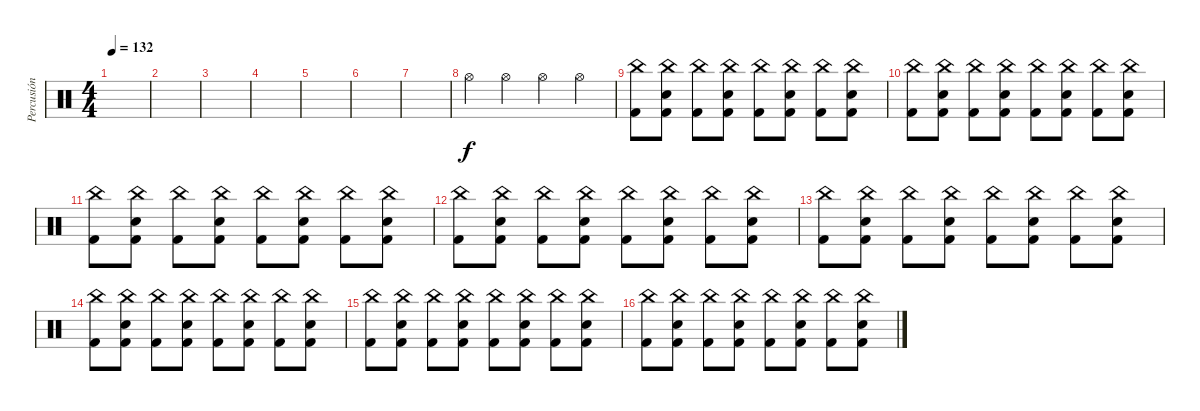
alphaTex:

\track ("Percusión" "Percusión") {instrument percussion}
\staff {score}
\articulation defaults
\ts (4 4)
\tempo 132
\clef neutral
\ks c
|
|
|
|
|
|
|
"Hi-Hat (open)".4 "Hi-Hat (open)".4 "Hi-Hat (open)".4 "Hi-Hat (open)".4 |
("China (hit)" "Kick (hit) 2").8 ("China (hit)" "Electric Snare (hit)" "Kick (hit) 2").8 ("China (hit)" "Kick (hit) 2").8 ("China (hit)" "Electric Snare (hit)" "Kick (hit) 2").8 ("China (hit)" "Kick (hit) 2").8 ("China (hit)" "Electric Snare (hit)" "Kick (hit) 2").8 ("China (hit)" "Kick (hit) 2").8 ("China (hit)" "Electric Snare (hit)" "Kick (hit) 2").8 |
("China (hit)" "Kick (hit) 2").8 ("China (hit)" "Electric Snare (hit)" "Kick (hit) 2").8 ("China (hit)" "Kick (hit) 2").8 ("China (hit)" "Electric Snare (hit)" "Kick (hit) 2").8 ("China (hit)" "Kick (hit) 2").8 ("China (hit)" "Electric Snare (hit)" "Kick (hit) 2").8 ("China (hit)" "Kick (hit) 2").8 ("China (hit)" "Electric Snare (hit)" "Kick (hit) 2").8 |
("China (hit)" "Kick (hit) 2").8 ("China (hit)" "Electric Snare (hit)" "Kick (hit) 2").8 ("China (hit)" "Kick (hit) 2").8 ("China (hit)" "Electric Snare (hit)" "Kick (hit) 2").8 ("China (hit)" "Kick (hit) 2").8 ("China (hit)" "Electric Snare (hit)" "Kick (hit) 2").8 ("China (hit)" "Kick (hit) 2").8 ("China (hit)" "Electric Snare (hit)" "Kick (hit) 2").8 |
("China (hit)" "Kick (hit) 2").8 ("China (hit)" "Electric Snare (hit)" "Kick (hit) 2").8 ("China (hit)" "Kick (hit) 2").8 ("China (hit)" "Electric Snare (hit)" "Kick (hit) 2").8 ("China (hit)" "Kick (hit) 2").8 ("China (hit)" "Electric Snare (hit)" "Kick (hit) 2").8 ("China (hit)" "Kick (hit) 2").8 ("China (hit)" "Electric Snare (hit)" "Kick (hit) 2").8 |
("China (hit)" "Kick (hit) 2").8 ("China (hit)" "Electric Snare (hit)" "Kick (hit) 2").8 ("China (hit)" "Kick (hit) 2").8 ("China (hit)" "Electric Snare (hit)" "Kick (hit) 2").8 ("China (hit)" "Kick (hit) 2").8 ("China (hit)" "Electric Snare (hit)" "Kick (hit) 2").8 ("China (hit)" "Kick (hit) 2").8 ("China (hit)" "Electric Snare (hit)" "Kick (hit) 2").8 |
("China (hit)" "Kick (hit) 2").8 ("China (hit)" "Electric Snare (hit)" "Kick (hit) 2").8 ("China (hit)" "Kick (hit) 2").8 ("China (hit)" "Electric Snare (hit)" "Kick (hit) 2").8 ("China (hit)" "Kick (hit) 2").8 ("China (hit)" "Electric Snare (hit)" "Kick (hit) 2").8 ("China (hit)" "Kick (hit) 2").8 ("China (hit)" "Electric Snare (hit)" "Kick (hit) 2").8 |
("China (hit)" "Kick (hit) 2").8 ("China (hit)" "Electric Snare (hit)" "Kick (hit) 2").8 ("China (hit)" "Kick (hit) 2").8 ("China (hit)" "Electric Snare (hit)" "Kick (hit) 2").8 ("China (hit)" "Kick (hit) 2").8 ("China (hit)" "Electric Snare (hit)" "Kick (hit) 2").8 ("China (hit)" "Kick (hit) 2").8 ("China (hit)" "Electric Snare (hit)" "Kick (hit) 2").8 |
("China (hit)" "Kick (hit) 2").8 ("China (hit)" "Electric Snare (hit)" "Kick (hit) 2").8 ("China (hit)" "Kick (hit) 2").8 ("China (hit)" "Electric Snare (hit)" "Kick (hit) 2").8 ("China (hit)" "Kick (hit) 2").8 ("China (hit)" "Electric Snare (hit)" "Kick (hit) 2").8 ("China (hit)" "Kick (hit) 2").8 ("China (hit)" "Electric Snare (hit)" "Kick (hit) 2").8
